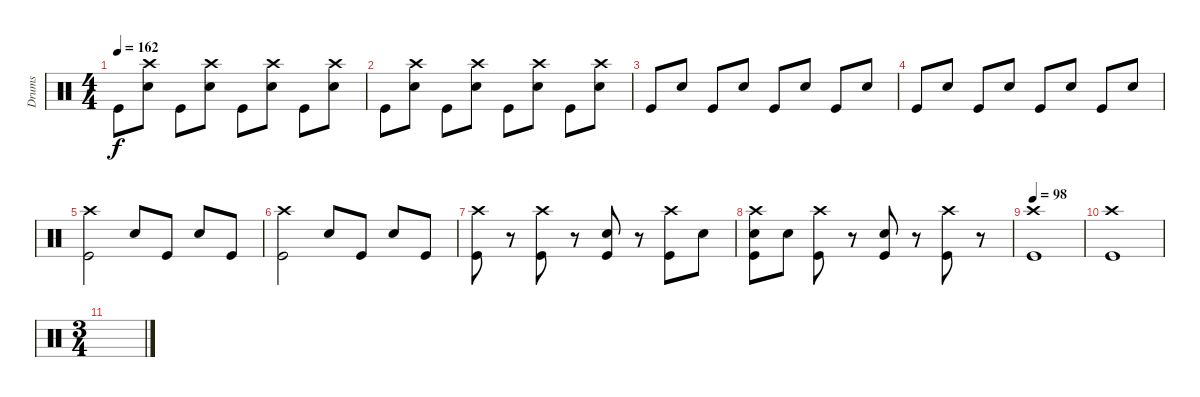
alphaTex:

\track ("Drums" "Drums") {instrument percussion}
\staff {score}
\articulation defaults
\ts (4 4)
\tempo 162
\clef neutral
\ks c "Kick (hit)".8{dy f}
("Snare (hit) 2" "Crash high (hit)").8 "Kick (hit)".8 ("Snare (hit) 2" "Crash high (hit)").8 "Kick (hit)".8 ("Snare (hit) 2" "Crash high (hit)").8 "Kick (hit)".8 ("Snare (hit) 2" "Crash high (hit)").8 |
"Kick (hit)".8 ("Snare (hit) 2" "Crash high (hit)").8 "Kick (hit)".8 ("Snare (hit) 2" "Crash high (hit)").8 "Kick (hit)".8 ("Snare (hit) 2" "Crash high (hit)").8 "Kick (hit)".8 ("Snare (hit) 2" "Crash high (hit)").8 |
"Kick (hit)".8 "Snare (hit) 2".8 "Kick (hit)".8 "Snare (hit) 2".8 "Kick (hit)".8 "Snare (hit) 2".8 "Kick (hit)".8 "Snare (hit) 2".8 |
"Kick (hit)".8 "Snare (hit) 2".8 "Kick (hit)".8 "Snare (hit) 2".8 "Kick (hit)".8 "Snare (hit) 2".8 "Kick (hit)".8 "Snare (hit) 2".8 |
("Kick (hit)" "Crash high (hit)").2 "Snare (hit) 2".8 "Kick (hit)".8 "Snare (hit) 2".8 "Kick (hit)".8 |
("Kick (hit)" "Crash high (hit)").2 "Snare (hit) 2".8 "Kick (hit)".8 "Snare (hit) 2".8 "Kick (hit)".8 |
("Kick (hit)" "Crash high (hit)").8 r.8 ("Kick (hit)" "Crash high (hit)").8 r.8 ("Kick (hit)" "Snare (hit) 2").8 r.8 ("Kick (hit)" "Crash high (hit)").8 "Snare (hit) 2".8 |
("Kick (hit)" "Snare (hit) 2" "Crash high (hit)").8 "Snare (hit) 2".8 ("Kick (hit)" "Crash high (hit)").8 r.8 ("Kick (hit)" "Snare (hit) 2").8 r.8 ("Kick (hit)" "Crash high (hit)").8 r.8 |
\tempo 98
("Kick (hit)" "Crash high (hit)").1 |
("Kick (hit)" "Crash high (hit)").1 |
\ts (3 4)
